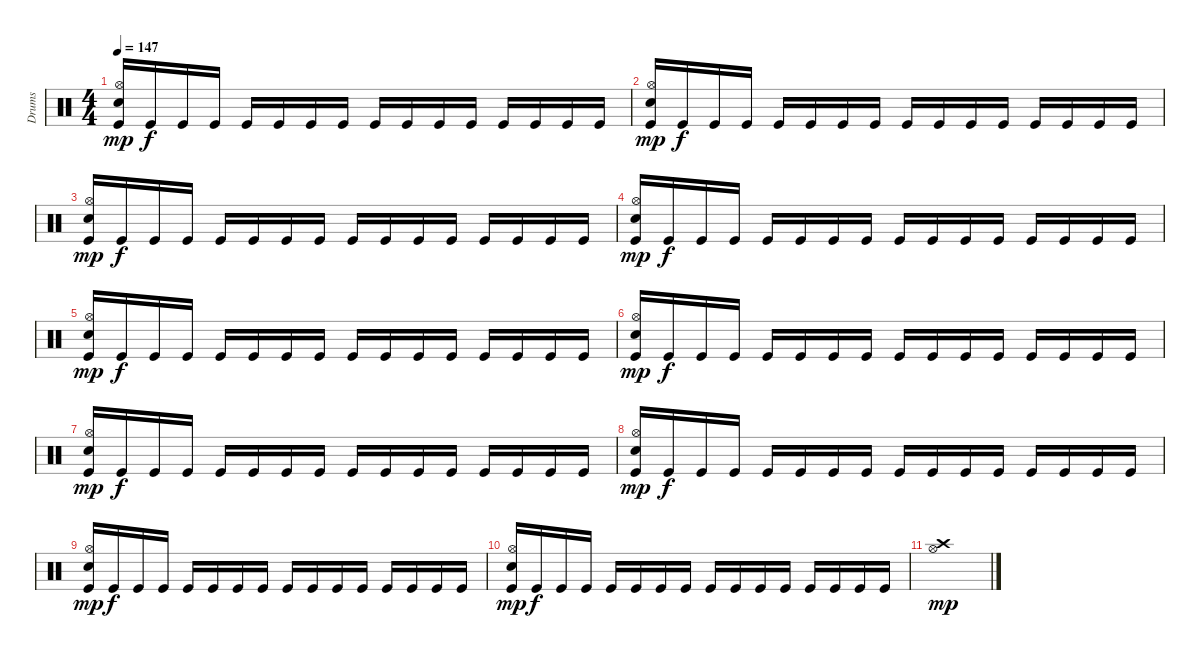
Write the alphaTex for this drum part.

\track ("Drums" "Drums") {instrument percussion}
\staff {score}
\articulation defaults
\ts (4 4)
\tempo 147
\clef neutral
\ks c
("Electric Snare (hit)" "Hi-Hat (open)" "Kick (hit)").16{dy mp} "Kick (hit)".16{dy f} "Kick (hit)".16 "Kick (hit)".16 "Kick (hit)".16 "Kick (hit)".16 "Kick (hit)".16 "Kick (hit)".16 "Kick (hit)".16 "Kick (hit)".16 "Kick (hit)".16 "Kick (hit)".16 "Kick (hit)".16 "Kick (hit)".16 "Kick (hit)".16 "Kick (hit)".16 |
("Electric Snare (hit)" "Hi-Hat (open)" "Kick (hit)").16{dy mp} "Kick (hit)".16{dy f} "Kick (hit)".16 "Kick (hit)".16 "Kick (hit)".16 "Kick (hit)".16 "Kick (hit)".16 "Kick (hit)".16 "Kick (hit)".16 "Kick (hit)".16 "Kick (hit)".16 "Kick (hit)".16 "Kick (hit)".16 "Kick (hit)".16 "Kick (hit)".16 "Kick (hit)".16 |
("Electric Snare (hit)" "Hi-Hat (open)" "Kick (hit)").16{dy mp} "Kick (hit)".16{dy f} "Kick (hit)".16 "Kick (hit)".16 "Kick (hit)".16 "Kick (hit)".16 "Kick (hit)".16 "Kick (hit)".16 "Kick (hit)".16 "Kick (hit)".16 "Kick (hit)".16 "Kick (hit)".16 "Kick (hit)".16 "Kick (hit)".16 "Kick (hit)".16 "Kick (hit)".16 |
("Electric Snare (hit)" "Hi-Hat (open)" "Kick (hit)").16{dy mp} "Kick (hit)".16{dy f} "Kick (hit)".16 "Kick (hit)".16 "Kick (hit)".16 "Kick (hit)".16 "Kick (hit)".16 "Kick (hit)".16 "Kick (hit)".16 "Kick (hit)".16 "Kick (hit)".16 "Kick (hit)".16 "Kick (hit)".16 "Kick (hit)".16 "Kick (hit)".16 "Kick (hit)".16 |
("Electric Snare (hit)" "Hi-Hat (open)" "Kick (hit)").16{dy mp} "Kick (hit)".16{dy f} "Kick (hit)".16 "Kick (hit)".16 "Kick (hit)".16 "Kick (hit)".16 "Kick (hit)".16 "Kick (hit)".16 "Kick (hit)".16 "Kick (hit)".16 "Kick (hit)".16 "Kick (hit)".16 "Kick (hit)".16 "Kick (hit)".16 "Kick (hit)".16 "Kick (hit)".16 |
("Electric Snare (hit)" "Hi-Hat (open)" "Kick (hit)").16{dy mp} "Kick (hit)".16{dy f} "Kick (hit)".16 "Kick (hit)".16 "Kick (hit)".16 "Kick (hit)".16 "Kick (hit)".16 "Kick (hit)".16 "Kick (hit)".16 "Kick (hit)".16 "Kick (hit)".16 "Kick (hit)".16 "Kick (hit)".16 "Kick (hit)".16 "Kick (hit)".16 "Kick (hit)".16 |
("Electric Snare (hit)" "Hi-Hat (open)" "Kick (hit)").16{dy mp} "Kick (hit)".16{dy f} "Kick (hit)".16 "Kick (hit)".16 "Kick (hit)".16 "Kick (hit)".16 "Kick (hit)".16 "Kick (hit)".16 "Kick (hit)".16 "Kick (hit)".16 "Kick (hit)".16 "Kick (hit)".16 "Kick (hit)".16 "Kick (hit)".16 "Kick (hit)".16 "Kick (hit)".16 |
("Electric Snare (hit)" "Hi-Hat (open)" "Kick (hit)").16{dy mp} "Kick (hit)".16{dy f} "Kick (hit)".16 "Kick (hit)".16 "Kick (hit)".16 "Kick (hit)".16 "Kick (hit)".16 "Kick (hit)".16 "Kick (hit)".16 "Kick (hit)".16 "Kick (hit)".16 "Kick (hit)".16 "Kick (hit)".16 "Kick (hit)".16 "Kick (hit)".16 "Kick (hit)".16 |
("Electric Snare (hit)" "Hi-Hat (open)" "Kick (hit)").16{dy mp} "Kick (hit)".16{dy f} "Kick (hit)".16 "Kick (hit)".16 "Kick (hit)".16 "Kick (hit)".16 "Kick (hit)".16 "Kick (hit)".16 "Kick (hit)".16 "Kick (hit)".16 "Kick (hit)".16 "Kick (hit)".16 "Kick (hit)".16 "Kick (hit)".16 "Kick (hit)".16 "Kick (hit)".16 |
("Electric Snare (hit)" "Hi-Hat (open)" "Kick (hit)").16{dy mp} "Kick (hit)".16{dy f} "Kick (hit)".16 "Kick (hit)".16 "Kick (hit)".16 "Kick (hit)".16 "Kick (hit)".16 "Kick (hit)".16 "Kick (hit)".16 "Kick (hit)".16 "Kick (hit)".16 "Kick (hit)".16 "Kick (hit)".16 "Kick (hit)".16 "Kick (hit)".16 "Kick (hit)".16 |
("Crash high (hit)" "Hi-Hat (open)").1{dy mp}
